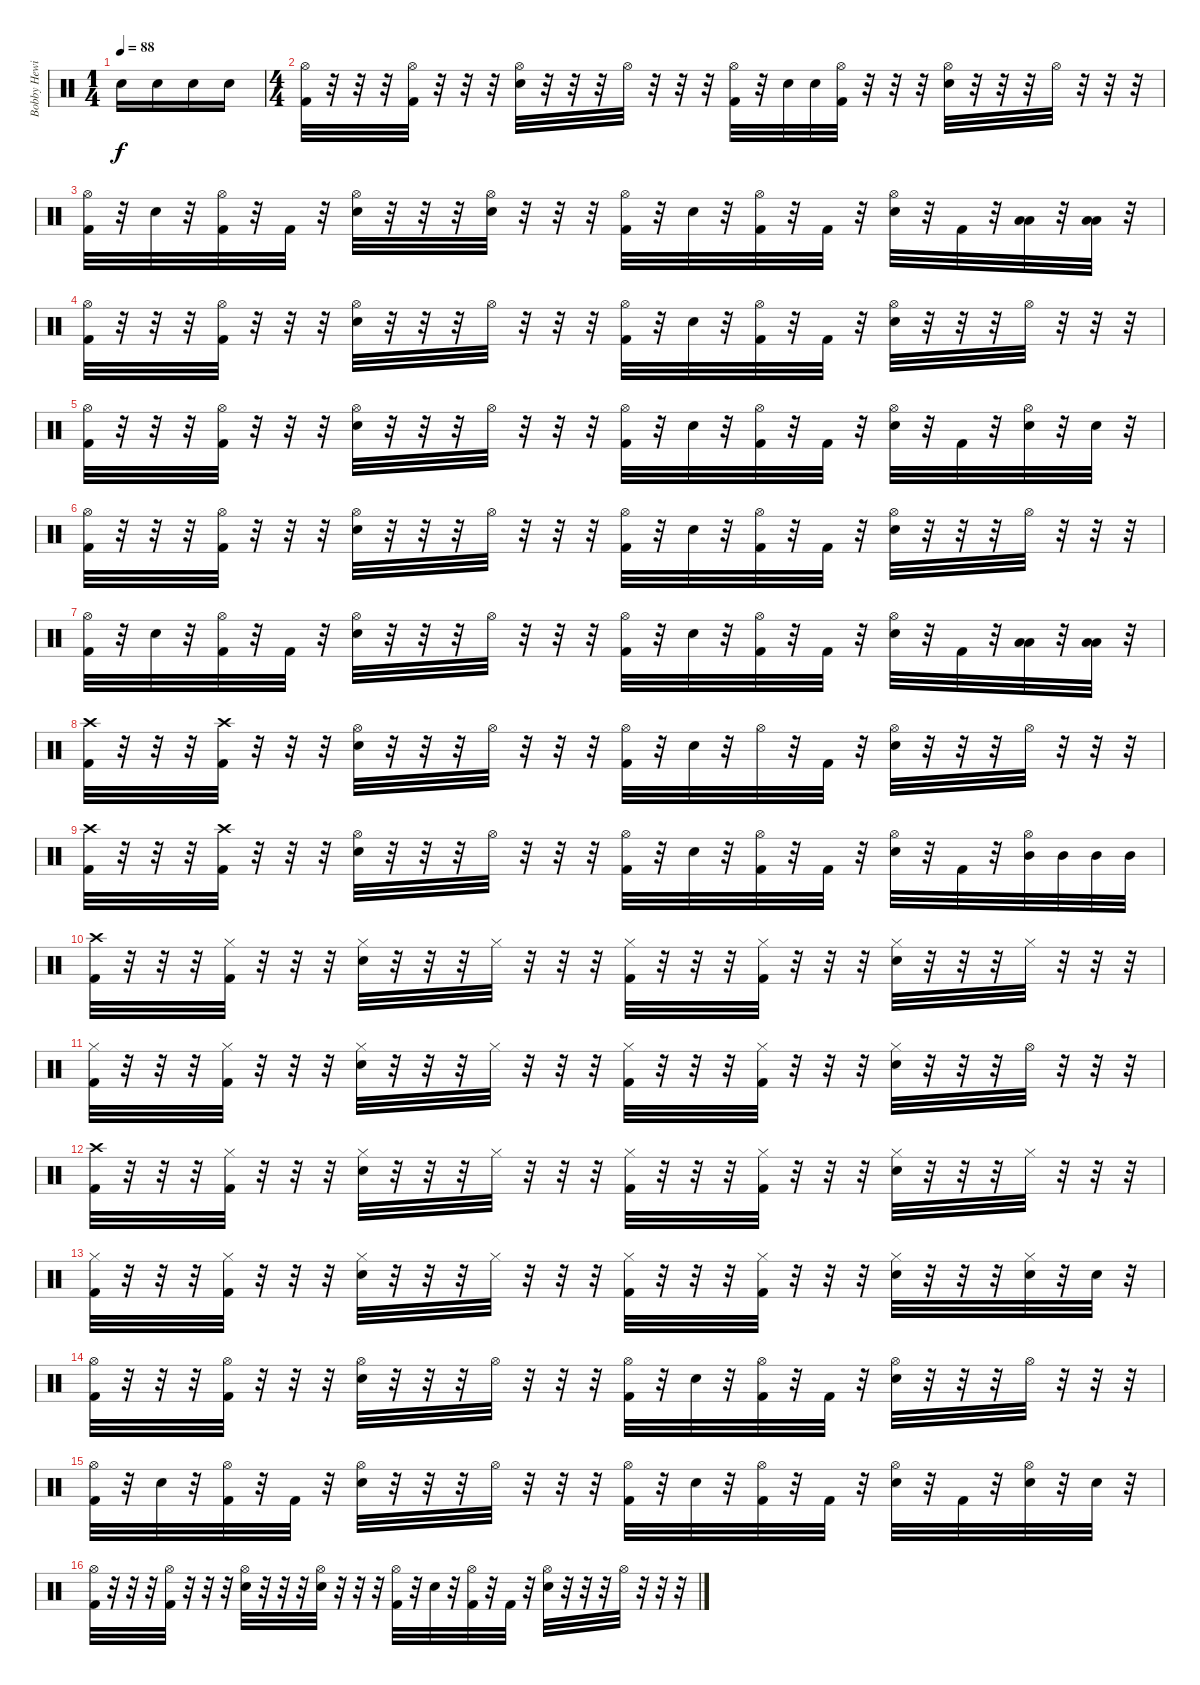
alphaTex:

\track ("Bobby Hewit - Drums" "Bobby Hewi") {instrument percussion}
\staff {score}
\articulation defaults
\ts (1 4)
\tempo 88
\clef neutral
\ks c "Electric Snare (hit)".16{dy f} "Electric Snare (hit)".16 "Electric Snare (hit)".16 "Electric Snare (hit)".16
|
\ts (4 4)
("Hi-Hat (open)" "Kick (hit) 2").32 r.32 r.32 r.32 ("Hi-Hat (open)" "Kick (hit) 2").32 r.32 r.32 r.32 ("Hi-Hat (open)" "Electric Snare (hit)").32 r.32 r.32 r.32 "Hi-Hat (open)".32 r.32 r.32 r.32 ("Hi-Hat (open)" "Kick (hit) 2").32 r.32 "Electric Snare (hit)".32 "Electric Snare (hit)".32 ("Hi-Hat (open)" "Kick (hit) 2").32 r.32 r.32 r.32 ("Hi-Hat (open)" "Electric Snare (hit)").32 r.32 r.32 r.32 "Hi-Hat (open)".32 r.32 r.32 r.32 |
("Hi-Hat (open)" "Kick (hit) 2").32 r.32 "Electric Snare (hit)".32 r.32 ("Hi-Hat (open)" "Kick (hit) 2").32 r.32 "Kick (hit) 2".32 r.32 ("Hi-Hat (open)" "Electric Snare (hit)").32 r.32 r.32 r.32 ("Hi-Hat (open)" "Electric Snare (hit)").32 r.32 r.32 r.32 ("Hi-Hat (open)" "Kick (hit) 2").32 r.32 "Electric Snare (hit)".32 r.32 ("Hi-Hat (open)" "Kick (hit) 2").32 r.32 "Kick (hit) 2".32 r.32 ("Hi-Hat (open)" "Electric Snare (hit)").32 r.32 "Kick (hit) 2".32 r.32 ("Low Tom (hit)" "Low Tom (hit)").32 r.32 ("Low Tom (hit)" "Low Tom (hit)").32 r.32 |
("Hi-Hat (open)" "Kick (hit) 2").32 r.32 r.32 r.32 ("Hi-Hat (open)" "Kick (hit) 2").32 r.32 r.32 r.32 ("Hi-Hat (open)" "Electric Snare (hit)").32 r.32 r.32 r.32 "Hi-Hat (open)".32 r.32 r.32 r.32 ("Hi-Hat (open)" "Kick (hit) 2").32 r.32 "Electric Snare (hit)".32 r.32 ("Hi-Hat (open)" "Kick (hit) 2").32 r.32 "Kick (hit) 2".32 r.32 ("Hi-Hat (open)" "Electric Snare (hit)").32 r.32 r.32 r.32 "Hi-Hat (open)".32 r.32 r.32 r.32 |
("Hi-Hat (open)" "Kick (hit) 2").32 r.32 r.32 r.32 ("Hi-Hat (open)" "Kick (hit) 2").32 r.32 r.32 r.32 ("Hi-Hat (open)" "Electric Snare (hit)").32 r.32 r.32 r.32 "Hi-Hat (open)".32 r.32 r.32 r.32 ("Hi-Hat (open)" "Kick (hit) 2").32 r.32 "Electric Snare (hit)".32 r.32 ("Hi-Hat (open)" "Kick (hit) 2").32 r.32 "Kick (hit) 2".32 r.32 ("Hi-Hat (open)" "Electric Snare (hit)").32 r.32 "Kick (hit) 2".32 r.32 ("Hi-Hat (open)" "Electric Snare (hit)").32 r.32 "Electric Snare (hit)".32 r.32 |
("Hi-Hat (open)" "Kick (hit) 2").32 r.32 r.32 r.32 ("Hi-Hat (open)" "Kick (hit) 2").32 r.32 r.32 r.32 ("Hi-Hat (open)" "Electric Snare (hit)").32 r.32 r.32 r.32 "Hi-Hat (open)".32 r.32 r.32 r.32 ("Hi-Hat (open)" "Kick (hit) 2").32 r.32 "Electric Snare (hit)".32 r.32 ("Hi-Hat (open)" "Kick (hit) 2").32 r.32 "Kick (hit) 2".32 r.32 ("Hi-Hat (open)" "Electric Snare (hit)").32 r.32 r.32 r.32 "Hi-Hat (open)".32 r.32 r.32 r.32 |
("Hi-Hat (open)" "Kick (hit) 2").32 r.32 "Electric Snare (hit)".32 r.32 ("Hi-Hat (open)" "Kick (hit) 2").32 r.32 "Kick (hit) 2".32 r.32 ("Hi-Hat (open)" "Electric Snare (hit)").32 r.32 r.32 r.32 "Hi-Hat (open)".32 r.32 r.32 r.32 ("Hi-Hat (open)" "Kick (hit) 2").32 r.32 "Electric Snare (hit)".32 r.32 ("Hi-Hat (open)" "Kick (hit) 2").32 r.32 "Kick (hit) 2".32 r.32 ("Hi-Hat (open)" "Electric Snare (hit)").32 r.32 "Kick (hit) 2".32 r.32 ("Low Tom (hit)" "Low Tom (hit)").32 r.32 ("Low Tom (hit)" "Low Tom (hit)").32 r.32 |
("Crash high (hit)" "Kick (hit) 2").32 r.32 r.32 r.32 ("Crash high (hit)" "Kick (hit) 2").32 r.32 r.32 r.32 ("Hi-Hat (open)" "Electric Snare (hit)").32 r.32 r.32 r.32 "Hi-Hat (open)".32 r.32 r.32 r.32 ("Hi-Hat (open)" "Kick (hit) 2").32 r.32 "Electric Snare (hit)".32 r.32 "Hi-Hat (open)".32 r.32 "Kick (hit) 2".32 r.32 ("Hi-Hat (open)" "Electric Snare (hit)").32 r.32 r.32 r.32 "Hi-Hat (open)".32 r.32 r.32 r.32 |
("Crash high (hit)" "Kick (hit) 2").32 r.32 r.32 r.32 ("Crash high (hit)" "Kick (hit) 2").32 r.32 r.32 r.32 ("Hi-Hat (open)" "Electric Snare (hit)").32 r.32 r.32 r.32 "Hi-Hat (open)".32 r.32 r.32 r.32 ("Hi-Hat (open)" "Kick (hit) 2").32 r.32 "Electric Snare (hit)".32 r.32 ("Hi-Hat (open)" "Kick (hit) 2").32 r.32 "Kick (hit) 2".32 r.32 ("Hi-Hat (open)" "Electric Snare (hit)").32 r.32 "Kick (hit) 2".32 r.32 ("Hi-Hat (open)" "Mid Tom (hit)").32 "Mid Tom (hit)".32 "Mid Tom (hit)".32 "Mid Tom (hit)".32 |
("Crash high (hit)" "Kick (hit) 2").32 r.32 r.32 r.32 ("Hi-Hat (closed)" "Kick (hit) 2").32 r.32 r.32 r.32 ("Hi-Hat (closed)" "Electric Snare (hit)").32 r.32 r.32 r.32 "Hi-Hat (closed)".32 r.32 r.32 r.32 ("Hi-Hat (closed)" "Kick (hit) 2").32 r.32 r.32 r.32 ("Hi-Hat (closed)" "Kick (hit) 2").32 r.32 r.32 r.32 ("Hi-Hat (closed)" "Electric Snare (hit)").32 r.32 r.32 r.32 "Hi-Hat (closed)".32 r.32 r.32 r.32 |
("Hi-Hat (closed)" "Kick (hit) 2").32 r.32 r.32 r.32 ("Hi-Hat (closed)" "Kick (hit) 2").32 r.32 r.32 r.32 ("Hi-Hat (closed)" "Electric Snare (hit)").32 r.32 r.32 r.32 "Hi-Hat (closed)".32 r.32 r.32 r.32 ("Hi-Hat (closed)" "Kick (hit) 2").32 r.32 r.32 r.32 ("Hi-Hat (closed)" "Kick (hit) 2").32 r.32 r.32 r.32 ("Hi-Hat (closed)" "Electric Snare (hit)").32 r.32 r.32 r.32 "Hi-Hat (open)".32 r.32 r.32 r.32 |
("Crash high (hit)" "Kick (hit) 2").32 r.32 r.32 r.32 ("Hi-Hat (closed)" "Kick (hit) 2").32 r.32 r.32 r.32 ("Hi-Hat (closed)" "Electric Snare (hit)").32 r.32 r.32 r.32 "Hi-Hat (closed)".32 r.32 r.32 r.32 ("Hi-Hat (closed)" "Kick (hit) 2").32 r.32 r.32 r.32 ("Hi-Hat (closed)" "Kick (hit) 2").32 r.32 r.32 r.32 ("Hi-Hat (closed)" "Electric Snare (hit)").32 r.32 r.32 r.32 "Hi-Hat (closed)".32 r.32 r.32 r.32 |
("Hi-Hat (closed)" "Kick (hit) 2").32 r.32 r.32 r.32 ("Hi-Hat (closed)" "Kick (hit) 2").32 r.32 r.32 r.32 ("Hi-Hat (closed)" "Electric Snare (hit)").32 r.32 r.32 r.32 "Hi-Hat (closed)".32 r.32 r.32 r.32 ("Hi-Hat (closed)" "Kick (hit) 2").32 r.32 r.32 r.32 ("Hi-Hat (closed)" "Kick (hit) 2").32 r.32 r.32 r.32 ("Hi-Hat (closed)" "Electric Snare (hit)").32 r.32 r.32 r.32 ("Hi-Hat (closed)" "Electric Snare (hit)").32 r.32 "Electric Snare (hit)".32 r.32 |
("Hi-Hat (open)" "Kick (hit) 2").32 r.32 r.32 r.32 ("Hi-Hat (open)" "Kick (hit) 2").32 r.32 r.32 r.32 ("Hi-Hat (open)" "Electric Snare (hit)").32 r.32 r.32 r.32 "Hi-Hat (open)".32 r.32 r.32 r.32 ("Hi-Hat (open)" "Kick (hit) 2").32 r.32 "Electric Snare (hit)".32 r.32 ("Hi-Hat (open)" "Kick (hit) 2").32 r.32 "Kick (hit) 2".32 r.32 ("Hi-Hat (open)" "Electric Snare (hit)").32 r.32 r.32 r.32 "Hi-Hat (open)".32 r.32 r.32 r.32 |
("Hi-Hat (open)" "Kick (hit) 2").32 r.32 "Electric Snare (hit)".32 r.32 ("Hi-Hat (open)" "Kick (hit) 2").32 r.32 "Kick (hit) 2".32 r.32 ("Hi-Hat (open)" "Electric Snare (hit)").32 r.32 r.32 r.32 "Hi-Hat (open)".32 r.32 r.32 r.32 ("Hi-Hat (open)" "Kick (hit) 2").32 r.32 "Electric Snare (hit)".32 r.32 ("Hi-Hat (open)" "Kick (hit) 2").32 r.32 "Kick (hit) 2".32 r.32 ("Hi-Hat (open)" "Electric Snare (hit)").32 r.32 "Kick (hit) 2".32 r.32 ("Hi-Hat (open)" "Electric Snare (hit)").32 r.32 "Electric Snare (hit)".32 r.32 |
("Hi-Hat (open)" "Kick (hit) 2").32 r.32 r.32 r.32 ("Hi-Hat (open)" "Kick (hit) 2").32 r.32 r.32 r.32 ("Hi-Hat (open)" "Electric Snare (hit)").32 r.32 r.32 r.32 ("Hi-Hat (open)" "Electric Snare (hit)").32 r.32 r.32 r.32 ("Hi-Hat (open)" "Kick (hit) 2").32 r.32 "Electric Snare (hit)".32 r.32 ("Hi-Hat (open)" "Kick (hit) 2").32 r.32 "Kick (hit) 2".32 r.32 ("Hi-Hat (open)" "Electric Snare (hit)").32 r.32 r.32 r.32 "Hi-Hat (open)".32 r.32 r.32 r.32
